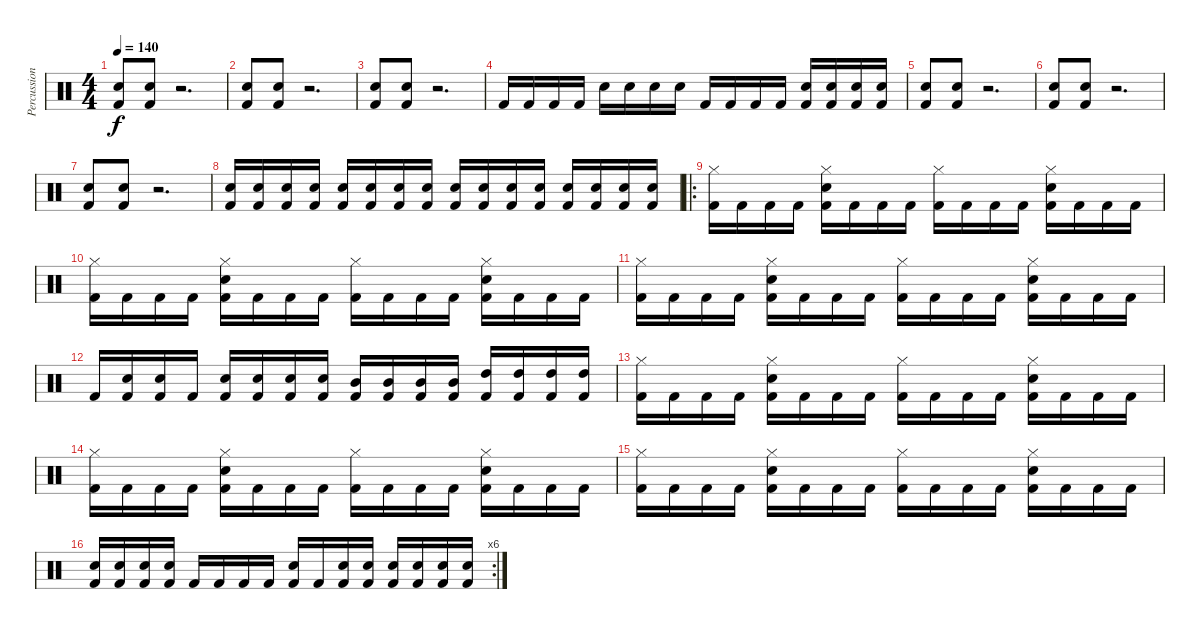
\track ("Percussion" "Percussion") {instrument percussion}
\staff {score}
\articulation defaults
\ts (4 4)
\tempo 140
\clef neutral
\ks c
("Electric Snare (hit)" "Kick (hit) 2").8{dy f} ("Electric Snare (hit)" "Kick (hit) 2").8 r.2{d} |
("Electric Snare (hit)" "Kick (hit) 2").8 ("Electric Snare (hit)" "Kick (hit) 2").8 r.2{d} |
("Electric Snare (hit)" "Kick (hit) 2").8 ("Electric Snare (hit)" "Kick (hit) 2").8 r.2{d} |
"Kick (hit) 2".16 "Kick (hit) 2".16 "Kick (hit) 2".16 "Kick (hit) 2".16 "Electric Snare (hit)".16 "Electric Snare (hit)".16 "Electric Snare (hit)".16 "Electric Snare (hit)".16 "Kick (hit) 2".16 "Kick (hit) 2".16 "Kick (hit) 2".16 "Kick (hit) 2".16 ("Electric Snare (hit)" "Kick (hit) 2").16 ("Electric Snare (hit)" "Kick (hit) 2").16 ("Electric Snare (hit)" "Kick (hit) 2").16 ("Electric Snare (hit)" "Kick (hit) 2").16 |
("Electric Snare (hit)" "Kick (hit) 2").8 ("Electric Snare (hit)" "Kick (hit) 2").8 r.2{d} |
("Electric Snare (hit)" "Kick (hit) 2").8 ("Electric Snare (hit)" "Kick (hit) 2").8 r.2{d} |
("Electric Snare (hit)" "Kick (hit) 2").8 ("Electric Snare (hit)" "Kick (hit) 2").8 r.2{d} |
("Electric Snare (hit)" "Kick (hit) 2").16 ("Electric Snare (hit)" "Kick (hit) 2").16 ("Electric Snare (hit)" "Kick (hit) 2").16 ("Electric Snare (hit)" "Kick (hit) 2").16 ("Electric Snare (hit)" "Kick (hit) 2").16 ("Electric Snare (hit)" "Kick (hit) 2").16 ("Electric Snare (hit)" "Kick (hit) 2").16 ("Electric Snare (hit)" "Kick (hit) 2").16 ("Electric Snare (hit)" "Kick (hit) 2").16 ("Electric Snare (hit)" "Kick (hit) 2").16 ("Electric Snare (hit)" "Kick (hit) 2").16 ("Electric Snare (hit)" "Kick (hit) 2").16 ("Electric Snare (hit)" "Kick (hit) 2").16 ("Electric Snare (hit)" "Kick (hit) 2").16 ("Electric Snare (hit)" "Kick (hit) 2").16 ("Electric Snare (hit)" "Kick (hit) 2").16 |
\ro
("Hi-Hat (closed)" "Kick (hit) 2").16 "Kick (hit) 2".16 "Kick (hit) 2".16 "Kick (hit) 2".16 ("Electric Snare (hit)" "Hi-Hat (closed)" "Kick (hit) 2").16 "Kick (hit) 2".16 "Kick (hit) 2".16 "Kick (hit) 2".16 ("Hi-Hat (closed)" "Kick (hit) 2").16 "Kick (hit) 2".16 "Kick (hit) 2".16 "Kick (hit) 2".16 ("Electric Snare (hit)" "Hi-Hat (closed)" "Kick (hit) 2").16 "Kick (hit) 2".16 "Kick (hit) 2".16 "Kick (hit) 2".16 |
("Hi-Hat (closed)" "Kick (hit) 2").16 "Kick (hit) 2".16 "Kick (hit) 2".16 "Kick (hit) 2".16 ("Electric Snare (hit)" "Hi-Hat (closed)" "Kick (hit) 2").16 "Kick (hit) 2".16 "Kick (hit) 2".16 "Kick (hit) 2".16 ("Hi-Hat (closed)" "Kick (hit) 2").16 "Kick (hit) 2".16 "Kick (hit) 2".16 "Kick (hit) 2".16 ("Electric Snare (hit)" "Hi-Hat (closed)" "Kick (hit) 2").16 "Kick (hit) 2".16 "Kick (hit) 2".16 "Kick (hit) 2".16 |
("Hi-Hat (closed)" "Kick (hit) 2").16 "Kick (hit) 2".16 "Kick (hit) 2".16 "Kick (hit) 2".16 ("Electric Snare (hit)" "Hi-Hat (closed)" "Kick (hit) 2").16 "Kick (hit) 2".16 "Kick (hit) 2".16 "Kick (hit) 2".16 ("Hi-Hat (closed)" "Kick (hit) 2").16 "Kick (hit) 2".16 "Kick (hit) 2".16 "Kick (hit) 2".16 ("Electric Snare (hit)" "Hi-Hat (closed)" "Kick (hit) 2").16 "Kick (hit) 2".16 "Kick (hit) 2".16 "Kick (hit) 2".16 |
"Kick (hit) 2".16 ("Electric Snare (hit)" "Kick (hit) 2").16 ("Electric Snare (hit)" "Kick (hit) 2").16 "Kick (hit) 2".16 ("Electric Snare (hit)" "Kick (hit) 2").16 ("Electric Snare (hit)" "Kick (hit) 2").16 ("Electric Snare (hit)" "Kick (hit) 2").16 ("Electric Snare (hit)" "Kick (hit) 2").16 ("Mid Tom (hit)" "Kick (hit) 2").16 ("Mid Tom (hit)" "Kick (hit) 2").16 ("Mid Tom (hit)" "Kick (hit) 2").16 ("Mid Tom (hit)" "Kick (hit) 2").16 ("High Tom (hit)" "Kick (hit) 2").16 ("High Tom (hit)" "Kick (hit) 2").16 ("High Tom (hit)" "Kick (hit) 2").16 ("High Tom (hit)" "Kick (hit) 2").16 |
("Hi-Hat (closed)" "Kick (hit) 2").16 "Kick (hit) 2".16 "Kick (hit) 2".16 "Kick (hit) 2".16 ("Electric Snare (hit)" "Hi-Hat (closed)" "Kick (hit) 2").16 "Kick (hit) 2".16 "Kick (hit) 2".16 "Kick (hit) 2".16 ("Hi-Hat (closed)" "Kick (hit) 2").16 "Kick (hit) 2".16 "Kick (hit) 2".16 "Kick (hit) 2".16 ("Electric Snare (hit)" "Hi-Hat (closed)" "Kick (hit) 2").16 "Kick (hit) 2".16 "Kick (hit) 2".16 "Kick (hit) 2".16 |
("Hi-Hat (closed)" "Kick (hit) 2").16 "Kick (hit) 2".16 "Kick (hit) 2".16 "Kick (hit) 2".16 ("Electric Snare (hit)" "Hi-Hat (closed)" "Kick (hit) 2").16 "Kick (hit) 2".16 "Kick (hit) 2".16 "Kick (hit) 2".16 ("Hi-Hat (closed)" "Kick (hit) 2").16 "Kick (hit) 2".16 "Kick (hit) 2".16 "Kick (hit) 2".16 ("Electric Snare (hit)" "Hi-Hat (closed)" "Kick (hit) 2").16 "Kick (hit) 2".16 "Kick (hit) 2".16 "Kick (hit) 2".16 |
("Hi-Hat (closed)" "Kick (hit) 2").16 "Kick (hit) 2".16 "Kick (hit) 2".16 "Kick (hit) 2".16 ("Electric Snare (hit)" "Hi-Hat (closed)" "Kick (hit) 2").16 "Kick (hit) 2".16 "Kick (hit) 2".16 "Kick (hit) 2".16 ("Hi-Hat (closed)" "Kick (hit) 2").16 "Kick (hit) 2".16 "Kick (hit) 2".16 "Kick (hit) 2".16 ("Electric Snare (hit)" "Hi-Hat (closed)" "Kick (hit) 2").16 "Kick (hit) 2".16 "Kick (hit) 2".16 "Kick (hit) 2".16 |
\rc 6
("Electric Snare (hit)" "Kick (hit) 2").16 ("Electric Snare (hit)" "Kick (hit) 2").16 ("Electric Snare (hit)" "Kick (hit) 2").16 ("Electric Snare (hit)" "Kick (hit) 2").16 "Kick (hit) 2".16 "Kick (hit) 2".16 "Kick (hit) 2".16 "Kick (hit) 2".16 ("Electric Snare (hit)" "Kick (hit) 2").16 "Kick (hit) 2".16 ("Electric Snare (hit)" "Kick (hit) 2").16 ("Electric Snare (hit)" "Kick (hit) 2").16 ("Electric Snare (hit)" "Kick (hit) 2").16 ("Electric Snare (hit)" "Kick (hit) 2").16 ("Electric Snare (hit)" "Kick (hit) 2").16 ("Electric Snare (hit)" "Kick (hit) 2").16
